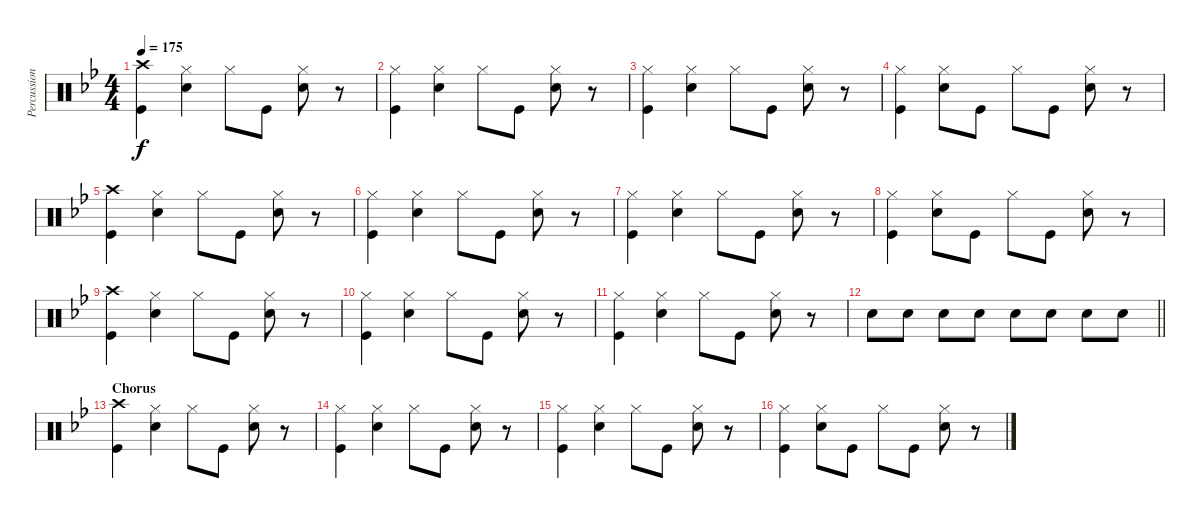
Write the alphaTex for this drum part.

\track ("Percussion" "Percussion") {instrument percussion}
\staff {score}
\articulation defaults
\ts (4 4)
\tempo 175
\clef neutral
\ks bb
("Kick (hit)" "Crash high (hit)").4{dy f} ("Snare (hit) 2" "Hi-Hat (closed)").4 "Hi-Hat (closed)".8 "Kick (hit)".8 ("Snare (hit) 2" "Hi-Hat (closed)").8 r.8 |
("Kick (hit)" "Hi-Hat (closed)").4 ("Snare (hit) 2" "Hi-Hat (closed)").4 "Hi-Hat (closed)".8 "Kick (hit)".8 ("Snare (hit) 2" "Hi-Hat (closed)").8 r.8 |
("Kick (hit)" "Hi-Hat (closed)").4 ("Snare (hit) 2" "Hi-Hat (closed)").4 "Hi-Hat (closed)".8 "Kick (hit)".8 ("Snare (hit) 2" "Hi-Hat (closed)").8 r.8 |
("Kick (hit)" "Hi-Hat (closed)").4 ("Snare (hit) 2" "Hi-Hat (closed)").8 "Kick (hit)".8 "Hi-Hat (closed)".8 "Kick (hit)".8 ("Snare (hit) 2" "Hi-Hat (closed)").8 r.8 |
("Kick (hit)" "Crash high (hit)").4 ("Snare (hit) 2" "Hi-Hat (closed)").4 "Hi-Hat (closed)".8 "Kick (hit)".8 ("Snare (hit) 2" "Hi-Hat (closed)").8 r.8 |
("Kick (hit)" "Hi-Hat (closed)").4 ("Snare (hit) 2" "Hi-Hat (closed)").4 "Hi-Hat (closed)".8 "Kick (hit)".8 ("Snare (hit) 2" "Hi-Hat (closed)").8 r.8 |
("Kick (hit)" "Hi-Hat (closed)").4 ("Snare (hit) 2" "Hi-Hat (closed)").4 "Hi-Hat (closed)".8 "Kick (hit)".8 ("Snare (hit) 2" "Hi-Hat (closed)").8 r.8 |
("Kick (hit)" "Hi-Hat (closed)").4 ("Snare (hit) 2" "Hi-Hat (closed)").8 "Kick (hit)".8 "Hi-Hat (closed)".8 "Kick (hit)".8 ("Snare (hit) 2" "Hi-Hat (closed)").8 r.8 |
("Kick (hit)" "Crash high (hit)").4 ("Snare (hit) 2" "Hi-Hat (closed)").4 "Hi-Hat (closed)".8 "Kick (hit)".8 ("Snare (hit) 2" "Hi-Hat (closed)").8 r.8 |
("Kick (hit)" "Hi-Hat (closed)").4 ("Snare (hit) 2" "Hi-Hat (closed)").4 "Hi-Hat (closed)".8 "Kick (hit)".8 ("Snare (hit) 2" "Hi-Hat (closed)").8 r.8 |
("Kick (hit)" "Hi-Hat (closed)").4 ("Snare (hit) 2" "Hi-Hat (closed)").4 "Hi-Hat (closed)".8 "Kick (hit)".8 ("Snare (hit) 2" "Hi-Hat (closed)").8 r.8 |
\barLineRight lightlight "Snare (hit) 2".8 "Snare (hit) 2".8 "Snare (hit) 2".8 "Snare (hit) 2".8 "Snare (hit) 2".8 "Snare (hit) 2".8 "Snare (hit) 2".8 "Snare (hit) 2".8
|
\section ("" "Chorus")
("Kick (hit)" "Crash high (hit)").4 ("Snare (hit) 2" "Hi-Hat (closed)").4 "Hi-Hat (closed)".8 "Kick (hit)".8 ("Snare (hit) 2" "Hi-Hat (closed)").8 r.8 |
("Kick (hit)" "Hi-Hat (closed)").4 ("Snare (hit) 2" "Hi-Hat (closed)").4 "Hi-Hat (closed)".8 "Kick (hit)".8 ("Snare (hit) 2" "Hi-Hat (closed)").8 r.8 |
("Kick (hit)" "Hi-Hat (closed)").4 ("Snare (hit) 2" "Hi-Hat (closed)").4 "Hi-Hat (closed)".8 "Kick (hit)".8 ("Snare (hit) 2" "Hi-Hat (closed)").8 r.8 |
("Kick (hit)" "Hi-Hat (closed)").4 ("Snare (hit) 2" "Hi-Hat (closed)").8 "Kick (hit)".8 "Hi-Hat (closed)".8 "Kick (hit)".8 ("Snare (hit) 2" "Hi-Hat (closed)").8 r.8
